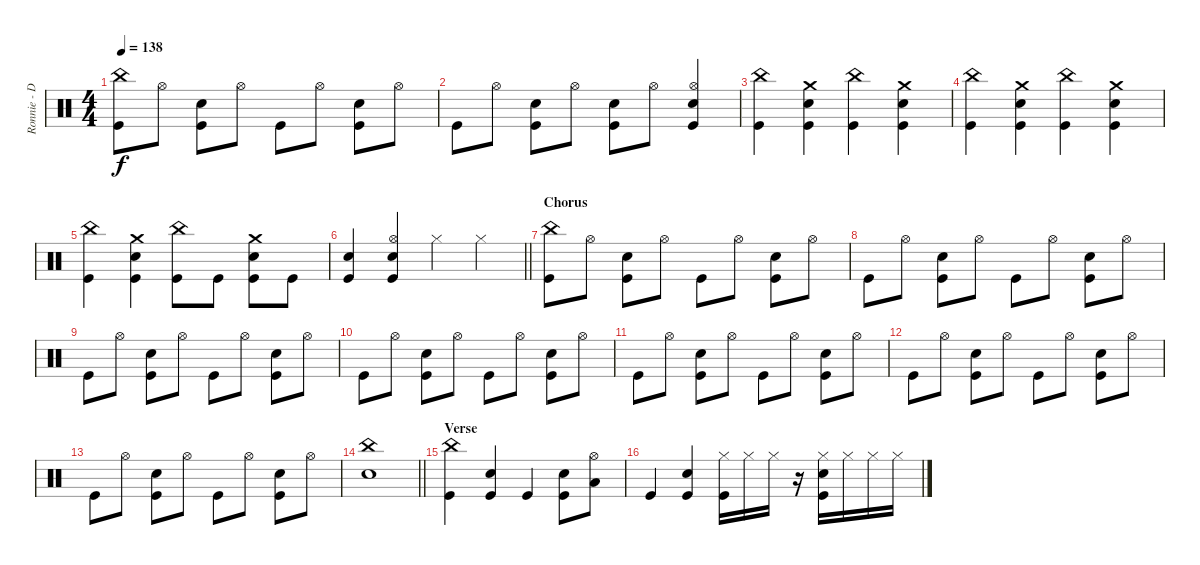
\track ("Ronnie - Drums" "Ronnie - D") {instrument percussion}
\staff {score}
\articulation defaults
\ts (4 4)
\tempo 138
\clef neutral
\ks c
("China (hit)" "Kick (hit)").8{dy f} "Hi-Hat (open)".8 ("Snare (hit) 2" "Kick (hit)").8 "Hi-Hat (open)".8 "Kick (hit)".8 "Hi-Hat (open)".8 ("Snare (hit) 2" "Kick (hit)").8 "Hi-Hat (open)".8 |
"Kick (hit)".8 "Hi-Hat (open)".8 ("Snare (hit) 2" "Kick (hit)").8 "Hi-Hat (open)".8 ("Snare (hit) 2" "Kick (hit)").8 "Hi-Hat (open)".8 ("Hi-Hat (open)" "Snare (hit) 2" "Kick (hit)").4 |
("China (hit)" "Kick (hit)").4 ("Crash medium (hit)" "Snare (hit) 2" "Kick (hit)").4 ("China (hit)" "Kick (hit)").4 ("Crash medium (hit)" "Snare (hit) 2" "Kick (hit)").4 |
("China (hit)" "Kick (hit)").4 ("Crash medium (hit)" "Snare (hit) 2" "Kick (hit)").4 ("China (hit)" "Kick (hit)").4 ("Crash medium (hit)" "Snare (hit) 2" "Kick (hit)").4 |
("China (hit)" "Kick (hit)").4 ("Crash medium (hit)" "Snare (hit) 2" "Kick (hit)").4 ("China (hit)" "Kick (hit)").8 "Kick (hit)".8 ("Crash medium (hit)" "Snare (hit) 2" "Kick (hit)").8 "Kick (hit)".8 |
\barLineRight lightlight
("Snare (hit) 2" "Kick (hit)").4 ("Hi-Hat (open)" "Snare (hit) 2" "Kick (hit)").4 "Hi-Hat (closed)".4 "Hi-Hat (closed)".4 |
\section ("" "Chorus")
("China (hit)" "Kick (hit)").8 "Hi-Hat (open)".8 ("Snare (hit) 2" "Kick (hit)").8 "Hi-Hat (open)".8 "Kick (hit)".8 "Hi-Hat (open)".8 ("Snare (hit) 2" "Kick (hit)").8 "Hi-Hat (open)".8 |
"Kick (hit)".8 "Hi-Hat (open)".8 ("Snare (hit) 2" "Kick (hit)").8 "Hi-Hat (open)".8 "Kick (hit)".8 "Hi-Hat (open)".8 ("Snare (hit) 2" "Kick (hit)").8 "Hi-Hat (open)".8 |
"Kick (hit)".8 "Hi-Hat (open)".8 ("Snare (hit) 2" "Kick (hit)").8 "Hi-Hat (open)".8 "Kick (hit)".8 "Hi-Hat (open)".8 ("Snare (hit) 2" "Kick (hit)").8 "Hi-Hat (open)".8 |
"Kick (hit)".8 "Hi-Hat (open)".8 ("Snare (hit) 2" "Kick (hit)").8 "Hi-Hat (open)".8 "Kick (hit)".8 "Hi-Hat (open)".8 ("Snare (hit) 2" "Kick (hit)").8 "Hi-Hat (open)".8 |
"Kick (hit)".8 "Hi-Hat (open)".8 ("Snare (hit) 2" "Kick (hit)").8 "Hi-Hat (open)".8 "Kick (hit)".8 "Hi-Hat (open)".8 ("Snare (hit) 2" "Kick (hit)").8 "Hi-Hat (open)".8 |
"Kick (hit)".8 "Hi-Hat (open)".8 ("Snare (hit) 2" "Kick (hit)").8 "Hi-Hat (open)".8 "Kick (hit)".8 "Hi-Hat (open)".8 ("Snare (hit) 2" "Kick (hit)").8 "Hi-Hat (open)".8 |
"Kick (hit)".8 "Hi-Hat (open)".8 ("Snare (hit) 2" "Kick (hit)").8 "Hi-Hat (open)".8 "Kick (hit)".8 "Hi-Hat (open)".8 ("Snare (hit) 2" "Kick (hit)").8 "Hi-Hat (open)".8 |
\barLineRight lightlight
("China (hit)" "Snare (hit) 2").1 |
\section ("" "Verse")
("China (hit)" "Kick (hit)").4 ("Snare (hit) 2" "Kick (hit)").4 "Kick (hit)".4 ("Snare (hit) 2" "Kick (hit)").8 ("Hi-Hat (open)" "Low Tom (hit)").8 |
"Kick (hit)".4 ("Snare (hit) 2" "Kick (hit)").4 ("Hi-Hat (closed)" "Kick (hit)").16 "Hi-Hat (closed)".16 "Hi-Hat (closed)".16 r.16 ("Hi-Hat (closed)" "Snare (hit) 2" "Kick (hit)").16 "Hi-Hat (closed)".16 "Hi-Hat (closed)".16 "Hi-Hat (closed)".16
